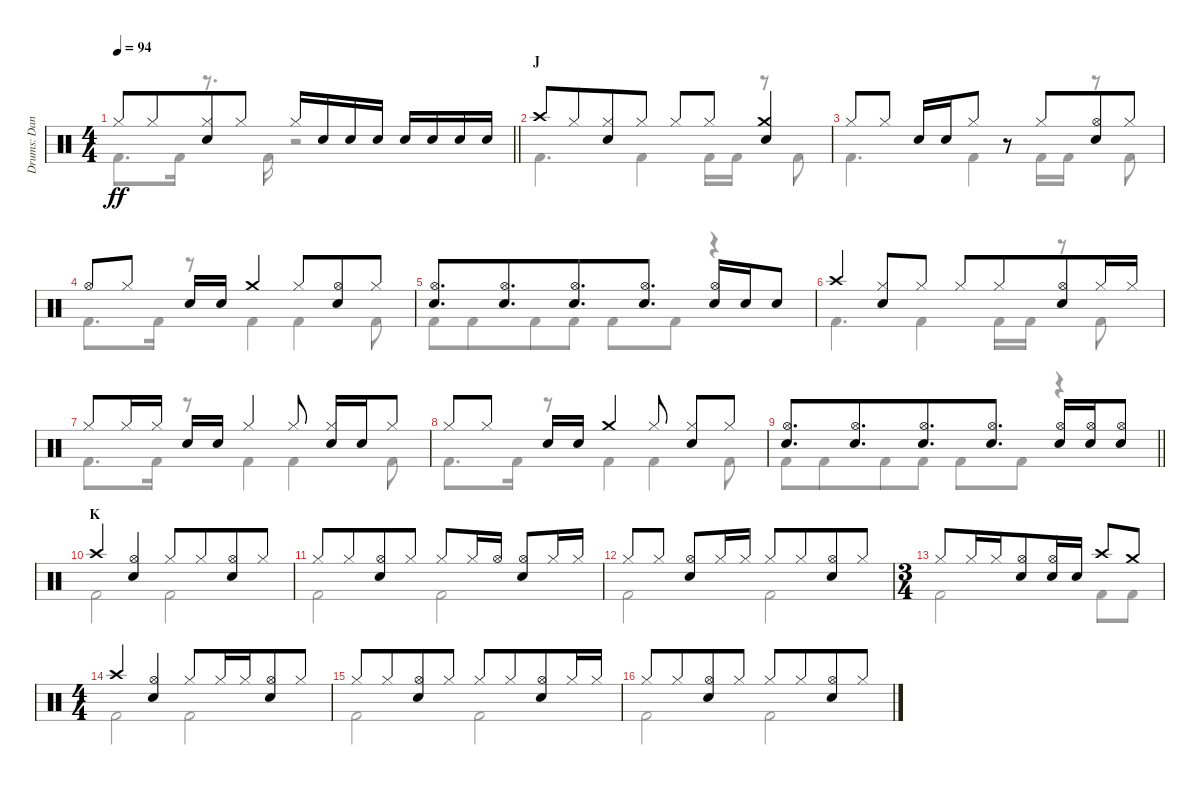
\track ("Drums: Dana" "Drums: Dan") {instrument percussion}
\staff {score}
\articulation defaults
\voice
\ts (4 4)
\tempo 94
\clef neutral
\barLineRight lightlight
\ks c "Hi-Hat (closed)".8{dy ff} "Hi-Hat (closed)".8{beam merge}
("Hi-Hat (closed)" "Snare (hit) 2").8 "Hi-Hat (closed)".8 "Hi-Hat (closed)".16 "Snare (hit) 2".16{beam merge} "Snare (hit) 2".16 "Snare (hit) 2".16 "Snare (hit) 2".16 "Snare (hit) 2".16{beam merge} "Snare (hit) 2".16 "Snare (hit) 2".16 |
\section ("" "J")
"Crash high (hit)".8 "Hi-Hat (closed)".8{beam merge} ("Hi-Hat (closed)" "Snare (hit) 2").8 "Hi-Hat (closed)".8 "Hi-Hat (closed)".8 "Hi-Hat (closed)".8{beam merge} ("Crash medium (hit)" "Snare (hit) 2").4 |
"Hi-Hat (closed)".8 "Hi-Hat (closed)".8 "Snare (hit) 2".16 "Snare (hit) 2".16 "Hi-Hat (closed)".8 r.8 "Hi-Hat (closed)".8{beam merge} ("Hi-Hat (open)" "Snare (hit) 2").8 "Hi-Hat (closed)".8 |
"Hi-Hat (open)".8 "Hi-Hat (closed)".8 "Snare (hit) 2".16 "Snare (hit) 2".16 "Crash medium (hit)".4 "Hi-Hat (closed)".8{beam merge} ("Hi-Hat (open)" "Snare (hit) 2").8 "Hi-Hat (closed)".8 |
("Hi-Hat (open)" "Snare (hit) 2").8{d beam merge} ("Hi-Hat (open)" "Snare (hit) 2").8{d beam merge} ("Hi-Hat (open)" "Snare (hit) 2").8{d beam merge} ("Hi-Hat (open)" "Snare (hit) 2").8{d} ("Hi-Hat (open)" "Snare (hit) 2").16 "Snare (hit) 2".16 "Snare (hit) 2".8 |
"Crash high (hit)".4{beam merge} ("Hi-Hat (closed)" "Snare (hit) 2").8 "Hi-Hat (closed)".8 "Hi-Hat (closed)".8 "Hi-Hat (closed)".8{beam merge} ("Hi-Hat (open)" "Snare (hit) 2").8 "Hi-Hat (closed)".16 "Hi-Hat (closed)".16 |
"Hi-Hat (closed)".8 "Hi-Hat (closed)".16 "Hi-Hat (closed)".16 "Snare (hit) 2".16 "Snare (hit) 2".16 "Hi-Hat (closed)".4 "Hi-Hat (closed)".8 ("Hi-Hat (closed)" "Snare (hit) 2").16 "Snare (hit) 2".16 "Hi-Hat (closed)".8 |
"Hi-Hat (closed)".8 "Hi-Hat (closed)".8 "Snare (hit) 2".16 "Snare (hit) 2".16 "Crash medium (hit)".4 "Hi-Hat (closed)".8 ("Hi-Hat (closed)" "Snare (hit) 2").8 "Hi-Hat (closed)".8 |
\barLineRight lightlight
("Hi-Hat (open)" "Snare (hit) 2").8{d beam merge} ("Hi-Hat (open)" "Snare (hit) 2").8{d beam merge} ("Hi-Hat (open)" "Snare (hit) 2").8{d beam merge} ("Hi-Hat (open)" "Snare (hit) 2").8{d} ("Hi-Hat (open)" "Snare (hit) 2").16 ("Hi-Hat (open)" "Snare (hit) 2").16 ("Hi-Hat (open)" "Snare (hit) 2").8 |
\section ("" "K")
"Crash high (hit)".4 ("Hi-Hat (open)" "Snare (hit) 2").4 "Hi-Hat (closed)".8 "Hi-Hat (closed)".8{beam merge} ("Hi-Hat (open)" "Snare (hit) 2").8 "Hi-Hat (closed)".8 |
"Hi-Hat (closed)".8 "Hi-Hat (closed)".8{beam merge} ("Hi-Hat (open)" "Snare (hit) 2").8 "Hi-Hat (closed)".8 "Hi-Hat (closed)".8 "Hi-Hat (closed)".16{beam merge} "Hi-Hat (open)".16 ("Hi-Hat (open)" "Snare (hit) 2").8 "Hi-Hat (closed)".16 "Hi-Hat (closed)".16 |
"Hi-Hat (closed)".8 "Hi-Hat (closed)".8 ("Hi-Hat (open)" "Snare (hit) 2").8 "Hi-Hat (closed)".16 "Hi-Hat (closed)".16 "Hi-Hat (closed)".8 "Hi-Hat (closed)".8{beam merge} ("Hi-Hat (open)" "Snare (hit) 2").8 "Hi-Hat (closed)".8 |
\ts (3 4)
"Hi-Hat (closed)".8 "Hi-Hat (closed)".16 "Hi-Hat (closed)".16{beam merge} ("Hi-Hat (open)" "Snare (hit) 2").8 ("Hi-Hat (open)" "Snare (hit) 2").16 "Snare (hit) 2".16 "Crash high (hit)".8{beam merge} "Crash medium (hit)".8 |
\ts (4 4)
"Crash high (hit)".4 ("Hi-Hat (open)" "Snare (hit) 2").4 "Hi-Hat (closed)".8 "Hi-Hat (closed)".16 "Hi-Hat (closed)".16{beam merge} ("Hi-Hat (open)" "Snare (hit) 2").8 "Hi-Hat (closed)".8 |
"Hi-Hat (closed)".8 "Hi-Hat (closed)".8{beam merge} ("Hi-Hat (open)" "Snare (hit) 2").8 "Hi-Hat (closed)".8 "Hi-Hat (closed)".8 "Hi-Hat (closed)".8{beam merge} ("Hi-Hat (open)" "Snare (hit) 2").8 "Hi-Hat (closed)".16 "Hi-Hat (closed)".16 |
"Hi-Hat (closed)".8 "Hi-Hat (closed)".8{beam merge} ("Hi-Hat (open)" "Snare (hit) 2").8 "Hi-Hat (closed)".8 "Hi-Hat (closed)".8 "Hi-Hat (closed)".8{beam merge} ("Hi-Hat (open)" "Snare (hit) 2").8 "Hi-Hat (closed)".8
\voice
\clef neutral
\ottava regular
\simile none
\barLineRight lightlight
\ks c "Kick (hit) 2".8{d dy ff} "Kick (hit) 2".16
r.8{d} "Kick (hit) 2".16 r.2 |
"Kick (hit) 2".4{d} "Kick (hit) 2".4 "Kick (hit) 2".16 "Kick (hit) 2".16 r.8 "Kick (hit) 2".8 |
"Kick (hit) 2".4{d} "Kick (hit) 2".4 "Kick (hit) 2".16 "Kick (hit) 2".16 r.8 "Kick (hit) 2".8 |
"Kick (hit) 2".8{d} "Kick (hit) 2".16 r.8 "Kick (hit) 2".4 "Kick (hit) 2".4 "Kick (hit) 2".8 |
"Kick (hit) 2".8 "Kick (hit) 2".8{beam merge} "Kick (hit) 2".8 "Kick (hit) 2".8 "Kick (hit) 2".8 "Kick (hit) 2".8 r.4 |
"Kick (hit) 2".4{d} "Kick (hit) 2".4 "Kick (hit) 2".16 "Kick (hit) 2".16 r.8 "Kick (hit) 2".8 |
"Kick (hit) 2".8{d} "Kick (hit) 2".16 r.8 "Kick (hit) 2".4 "Kick (hit) 2".4 "Kick (hit) 2".8 |
"Kick (hit) 2".8{d} "Kick (hit) 2".16 r.8 "Kick (hit) 2".4 "Kick (hit) 2".4 "Kick (hit) 2".8 |
\barLineRight lightlight "Kick (hit) 2".8 "Kick (hit) 2".8{beam merge} "Kick (hit) 2".8 "Kick (hit) 2".8 "Kick (hit) 2".8 "Kick (hit) 2".8
r.4 |
"Kick (hit) 2".2 "Kick (hit) 2".2 |
"Kick (hit) 2".2 "Kick (hit) 2".2 |
"Kick (hit) 2".2 "Kick (hit) 2".2 |
"Kick (hit) 2".2 "Kick (hit) 2".8 "Kick (hit) 2".8 |
"Kick (hit) 2".2 "Kick (hit) 2".2 |
"Kick (hit) 2".2 "Kick (hit) 2".2 |
"Kick (hit) 2".2 "Kick (hit) 2".2
